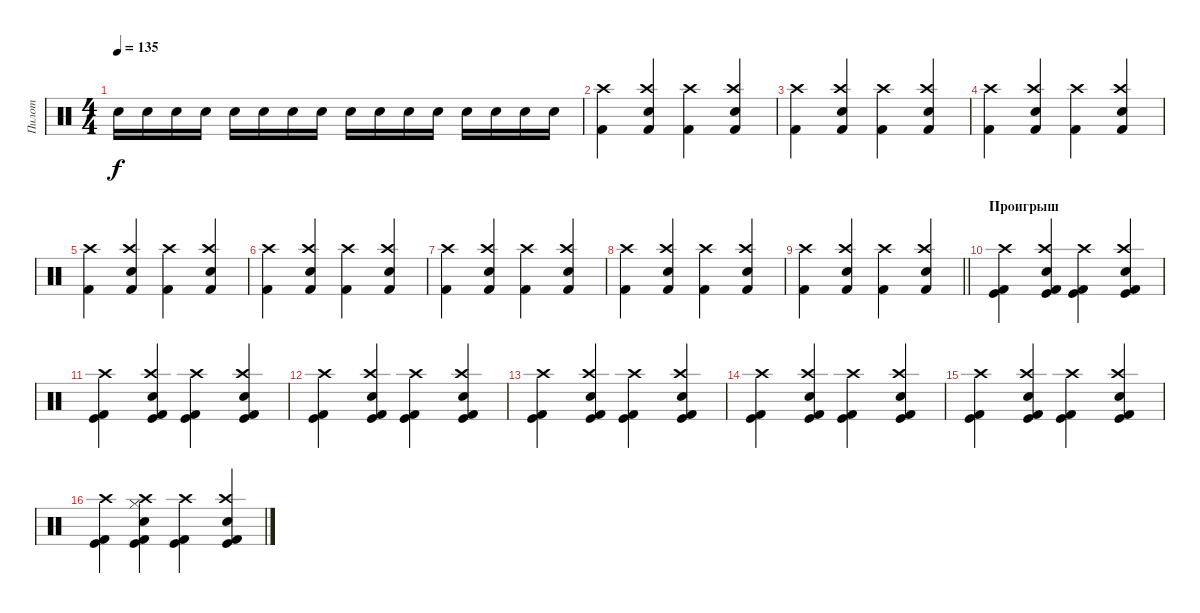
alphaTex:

\track ("Пилот" "Пилот") {instrument percussion}
\staff {score}
\articulation defaults
\ts (4 4)
\tempo 135
\clef neutral
\ks c "Snare (hit) 2".16{dy f} "Snare (hit) 2".16 "Snare (hit) 2".16 "Snare (hit) 2".16 "Snare (hit) 2".16 "Snare (hit) 2".16 "Snare (hit) 2".16 "Snare (hit) 2".16 "Snare (hit) 2".16 "Snare (hit) 2".16 "Snare (hit) 2".16 "Snare (hit) 2".16 "Snare (hit) 2".16 "Snare (hit) 2".16 "Snare (hit) 2".16 "Snare (hit) 2".16
|
("Crash high (hit)" "Kick (hit) 2").4 ("Crash high (hit)" "Kick (hit) 2" "Snare (hit) 2").4 ("Crash high (hit)" "Kick (hit) 2").4 ("Crash high (hit)" "Kick (hit) 2" "Snare (hit) 2").4 |
("Crash high (hit)" "Kick (hit) 2").4 ("Crash high (hit)" "Kick (hit) 2" "Snare (hit) 2").4 ("Crash high (hit)" "Kick (hit) 2").4 ("Crash high (hit)" "Kick (hit) 2" "Snare (hit) 2").4 |
("Crash high (hit)" "Kick (hit) 2").4 ("Crash high (hit)" "Kick (hit) 2" "Snare (hit) 2").4 ("Crash high (hit)" "Kick (hit) 2").4 ("Crash high (hit)" "Kick (hit) 2" "Snare (hit) 2").4 |
("Crash high (hit)" "Kick (hit) 2").4 ("Crash high (hit)" "Kick (hit) 2" "Snare (hit) 2").4 ("Crash high (hit)" "Kick (hit) 2").4 ("Crash high (hit)" "Kick (hit) 2" "Snare (hit) 2").4 |
("Crash high (hit)" "Kick (hit) 2").4 ("Crash high (hit)" "Kick (hit) 2" "Snare (hit) 2").4 ("Crash high (hit)" "Kick (hit) 2").4 ("Crash high (hit)" "Kick (hit) 2" "Snare (hit) 2").4 |
("Crash high (hit)" "Kick (hit) 2").4 ("Crash high (hit)" "Kick (hit) 2" "Snare (hit) 2").4 ("Crash high (hit)" "Kick (hit) 2").4 ("Crash high (hit)" "Kick (hit) 2" "Snare (hit) 2").4 |
("Crash high (hit)" "Kick (hit) 2").4 ("Crash high (hit)" "Kick (hit) 2" "Snare (hit) 2").4 ("Crash high (hit)" "Kick (hit) 2").4 ("Crash high (hit)" "Kick (hit) 2" "Snare (hit) 2").4 |
\barLineRight lightlight
("Crash high (hit)" "Kick (hit) 2").4 ("Crash high (hit)" "Kick (hit) 2" "Snare (hit) 2").4 ("Crash high (hit)" "Kick (hit) 2").4 ("Crash high (hit)" "Kick (hit) 2" "Snare (hit) 2").4 |
\section ("" "Проигрыш")
("Kick (hit) 2" "Crash high (hit)" "Kick (hit)").4 ("Kick (hit) 2" "Snare (hit) 2" "Crash high (hit)" "Kick (hit)").4 ("Kick (hit) 2" "Crash high (hit)" "Kick (hit)").4 ("Kick (hit) 2" "Snare (hit) 2" "Crash high (hit)" "Kick (hit)").4 |
("Kick (hit) 2" "Crash high (hit)" "Kick (hit)").4 ("Kick (hit) 2" "Snare (hit) 2" "Crash high (hit)" "Kick (hit)").4 ("Kick (hit) 2" "Crash high (hit)" "Kick (hit)").4 ("Kick (hit) 2" "Snare (hit) 2" "Crash high (hit)" "Kick (hit)").4 |
("Kick (hit) 2" "Crash high (hit)" "Kick (hit)").4 ("Kick (hit) 2" "Snare (hit) 2" "Crash high (hit)" "Kick (hit)").4 ("Kick (hit) 2" "Crash high (hit)" "Kick (hit)").4 ("Kick (hit) 2" "Snare (hit) 2" "Crash high (hit)" "Kick (hit)").4 |
("Kick (hit) 2" "Crash high (hit)" "Kick (hit)").4 ("Kick (hit) 2" "Snare (hit) 2" "Crash high (hit)" "Kick (hit)").4 ("Kick (hit) 2" "Crash high (hit)" "Kick (hit)").4 ("Kick (hit) 2" "Snare (hit) 2" "Crash high (hit)" "Kick (hit)").4 |
("Kick (hit) 2" "Crash high (hit)" "Kick (hit)").4 ("Kick (hit) 2" "Snare (hit) 2" "Crash high (hit)" "Kick (hit)").4 ("Kick (hit) 2" "Crash high (hit)" "Kick (hit)").4 ("Kick (hit) 2" "Snare (hit) 2" "Crash high (hit)" "Kick (hit)").4 |
("Kick (hit) 2" "Crash high (hit)" "Kick (hit)").4 ("Kick (hit) 2" "Snare (hit) 2" "Crash high (hit)" "Kick (hit)").4 ("Kick (hit) 2" "Crash high (hit)" "Kick (hit)").4 ("Kick (hit) 2" "Snare (hit) 2" "Crash high (hit)" "Kick (hit)").4 |
("Kick (hit) 2" "Crash high (hit)" "Kick (hit)").4 ("Kick (hit) 2" "Snare (hit) 2" "Hi-Hat (closed)" "Crash high (hit)" "Kick (hit)").4 ("Kick (hit) 2" "Crash high (hit)" "Kick (hit)").4 ("Kick (hit) 2" "Snare (hit) 2" "Crash high (hit)" "Kick (hit)").4
